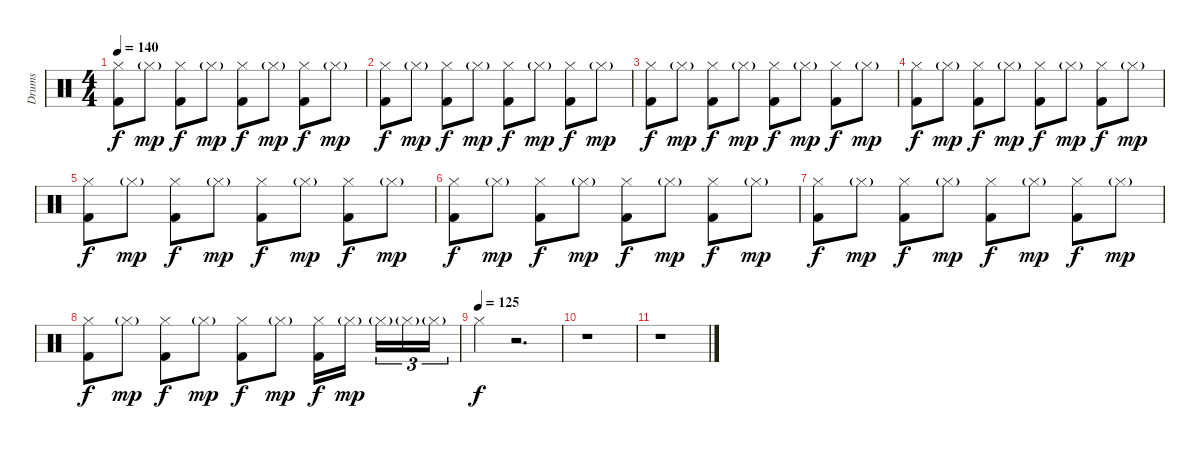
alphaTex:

\track ("Drums" "Drums") {instrument percussion}
\staff {score}
\articulation defaults
\ts (4 4)
\tempo 140
\clef neutral
\ks c
("Hi-Hat (closed)" "Kick (hit) 2").8{dy f} "Hi-Hat (closed)"{g}.8{dy mp} ("Hi-Hat (closed)" "Kick (hit) 2").8{dy f} "Hi-Hat (closed)"{g}.8{dy mp} ("Hi-Hat (closed)" "Kick (hit) 2").8{dy f} "Hi-Hat (closed)"{g}.8{dy mp} ("Hi-Hat (closed)" "Kick (hit) 2").8{dy f} "Hi-Hat (closed)"{g}.8{dy mp} |
("Hi-Hat (closed)" "Kick (hit) 2").8{dy f} "Hi-Hat (closed)"{g}.8{dy mp} ("Hi-Hat (closed)" "Kick (hit) 2").8{dy f} "Hi-Hat (closed)"{g}.8{dy mp} ("Hi-Hat (closed)" "Kick (hit) 2").8{dy f} "Hi-Hat (closed)"{g}.8{dy mp} ("Hi-Hat (closed)" "Kick (hit) 2").8{dy f} "Hi-Hat (closed)"{g}.8{dy mp} |
("Hi-Hat (closed)" "Kick (hit) 2").8{dy f} "Hi-Hat (closed)"{g}.8{dy mp} ("Hi-Hat (closed)" "Kick (hit) 2").8{dy f} "Hi-Hat (closed)"{g}.8{dy mp} ("Hi-Hat (closed)" "Kick (hit) 2").8{dy f} "Hi-Hat (closed)"{g}.8{dy mp} ("Hi-Hat (closed)" "Kick (hit) 2").8{dy f} "Hi-Hat (closed)"{g}.8{dy mp} |
("Hi-Hat (closed)" "Kick (hit) 2").8{dy f} "Hi-Hat (closed)"{g}.8{dy mp} ("Hi-Hat (closed)" "Kick (hit) 2").8{dy f} "Hi-Hat (closed)"{g}.8{dy mp} ("Hi-Hat (closed)" "Kick (hit) 2").8{dy f} "Hi-Hat (closed)"{g}.8{dy mp} ("Hi-Hat (closed)" "Kick (hit) 2").8{dy f} "Hi-Hat (closed)"{g}.8{dy mp} |
("Hi-Hat (closed)" "Kick (hit) 2").8{dy f} "Hi-Hat (closed)"{g}.8{dy mp} ("Hi-Hat (closed)" "Kick (hit) 2").8{dy f} "Hi-Hat (closed)"{g}.8{dy mp} ("Hi-Hat (closed)" "Kick (hit) 2").8{dy f} "Hi-Hat (closed)"{g}.8{dy mp} ("Hi-Hat (closed)" "Kick (hit) 2").8{dy f} "Hi-Hat (closed)"{g}.8{dy mp} |
("Hi-Hat (closed)" "Kick (hit) 2").8{dy f} "Hi-Hat (closed)"{g}.8{dy mp} ("Hi-Hat (closed)" "Kick (hit) 2").8{dy f} "Hi-Hat (closed)"{g}.8{dy mp} ("Hi-Hat (closed)" "Kick (hit) 2").8{dy f} "Hi-Hat (closed)"{g}.8{dy mp} ("Hi-Hat (closed)" "Kick (hit) 2").8{dy f} "Hi-Hat (closed)"{g}.8{dy mp} |
("Hi-Hat (closed)" "Kick (hit) 2").8{dy f} "Hi-Hat (closed)"{g}.8{dy mp} ("Hi-Hat (closed)" "Kick (hit) 2").8{dy f} "Hi-Hat (closed)"{g}.8{dy mp} ("Hi-Hat (closed)" "Kick (hit) 2").8{dy f} "Hi-Hat (closed)"{g}.8{dy mp} ("Hi-Hat (closed)" "Kick (hit) 2").8{dy f} "Hi-Hat (closed)"{g}.8{dy mp} |
("Hi-Hat (closed)" "Kick (hit) 2").8{dy f} "Hi-Hat (closed)"{g}.8{dy mp} ("Hi-Hat (closed)" "Kick (hit) 2").8{dy f} "Hi-Hat (closed)"{g}.8{dy mp} ("Hi-Hat (closed)" "Kick (hit) 2").8{dy f} "Hi-Hat (closed)"{g}.8{dy mp} ("Hi-Hat (closed)" "Kick (hit) 2").16{dy f} "Hi-Hat (closed)"{g}.16{dy mp beam splitsecondary} "Hi-Hat (closed)"{g}.16{tu (3 2)} "Hi-Hat (closed)"{g}.16{tu (3 2)} "Hi-Hat (closed)"{g}.16{tu (3 2)} |
\tempo (125)
"Hi-Hat (closed)".4{dy f} r.2{d} |
r.1 |
r.1
